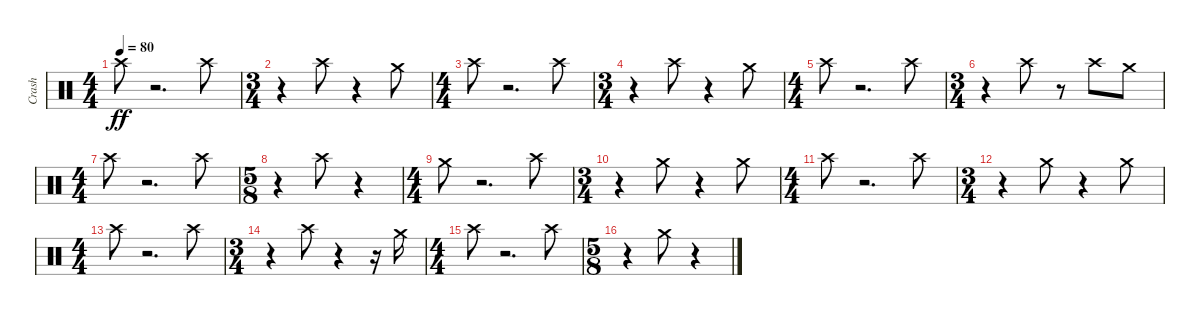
\track ("Crash" "Crash") {instrument percussion}
\staff {score}
\articulation defaults
\ts (4 4)
\tempo 80
\clef neutral
\ks c "Crash high (hit)".8{dy ff}
r.2{d} "Crash high (hit)".8 |
\ts (3 4)
r.4 "Crash high (hit)".8 r.4 "Crash medium (hit)".8 |
\ts (4 4)
"Crash high (hit)".8 r.2{d} "Crash high (hit)".8 |
\ts (3 4)
r.4 "Crash high (hit)".8 r.4 "Crash medium (hit)".8 |
\ts (4 4)
"Crash high (hit)".8 r.2{d} "Crash high (hit)".8 |
\ts (3 4)
r.4 "Crash high (hit)".8 r.8 "Crash high (hit)".8 "Crash medium (hit)".8 |
\ts (4 4)
"Crash high (hit)".8 r.2{d} "Crash high (hit)".8 |
\ts (5 8)
r.4 "Crash high (hit)".8 r.4 |
\ts (4 4)
"Crash medium (hit)".8 r.2{d} "Crash high (hit)".8 |
\ts (3 4)
r.4 "Crash medium (hit)".8 r.4 "Crash medium (hit)".8 |
\ts (4 4)
"Crash high (hit)".8 r.2{d} "Crash high (hit)".8 |
\ts (3 4)
r.4 "Crash medium (hit)".8 r.4 "Crash medium (hit)".8 |
\ts (4 4)
"Crash high (hit)".8 r.2{d} "Crash high (hit)".8 |
\ts (3 4)
r.4 "Crash high (hit)".8 r.4 r.16 "Crash medium (hit)".16 |
\ts (4 4)
"Crash high (hit)".8 r.2{d} "Crash high (hit)".8 |
\ts (5 8)
r.4 "Crash medium (hit)".8 r.4
